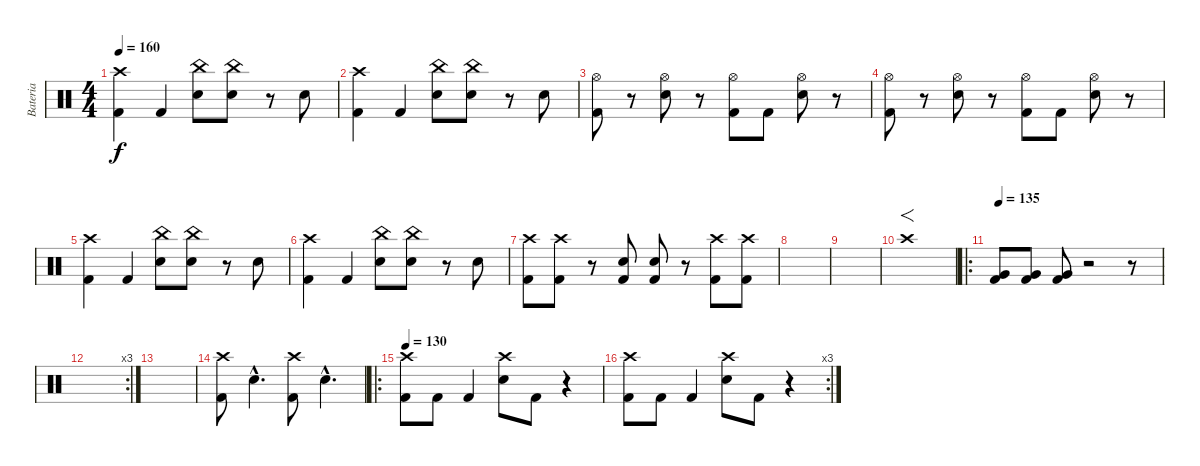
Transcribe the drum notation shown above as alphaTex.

\track ("Bateria" "Bateria") {instrument percussion}
\staff {score}
\articulation defaults
\ts (4 4)
\tempo 160
\clef neutral
\ks c
("Crash high (hit)" "Kick (hit) 2").4{dy f} "Kick (hit) 2".4 ("China (hit)" "Electric Snare (hit)").8 ("China (hit)" "Electric Snare (hit)").8 r.8 "Electric Snare (hit)".8 |
("Crash high (hit)" "Kick (hit) 2").4 "Kick (hit) 2".4 ("China (hit)" "Electric Snare (hit)").8 ("China (hit)" "Electric Snare (hit)").8 r.8 "Electric Snare (hit)".8 |
("Hi-Hat (open)" "Kick (hit) 2").8 r.8 ("Hi-Hat (open)" "Electric Snare (hit)").8 r.8 ("Hi-Hat (open)" "Kick (hit) 2").8 "Kick (hit) 2".8 ("Hi-Hat (open)" "Electric Snare (hit)").8 r.8 |
("Hi-Hat (open)" "Kick (hit) 2").8 r.8 ("Hi-Hat (open)" "Electric Snare (hit)").8 r.8 ("Hi-Hat (open)" "Kick (hit) 2").8 "Kick (hit) 2".8 ("Hi-Hat (open)" "Electric Snare (hit)").8 r.8 |
("Crash high (hit)" "Kick (hit) 2").4 "Kick (hit) 2".4 ("China (hit)" "Electric Snare (hit)").8 ("China (hit)" "Electric Snare (hit)").8 r.8 "Electric Snare (hit)".8 |
("Crash high (hit)" "Kick (hit) 2").4 "Kick (hit) 2".4 ("China (hit)" "Electric Snare (hit)").8 ("China (hit)" "Electric Snare (hit)").8 r.8 "Electric Snare (hit)".8 |
("Crash high (hit)" "Kick (hit) 2").8 ("Crash high (hit)" "Kick (hit) 2").8 r.8 ("Electric Snare (hit)" "Kick (hit) 2").8 ("Electric Snare (hit)" "Kick (hit) 2").8 r.8 ("Crash high (hit)" "Kick (hit) 2").8 ("Crash high (hit)" "Kick (hit) 2").8 |
|
|
"Crash high (hit)".1{f} |
\ro
\tempo 135
("Kick (hit) 2" "Very Low Tom (hit)").8 ("Kick (hit) 2" "Very Low Tom (hit)").8 ("Kick (hit) 2" "Very Low Tom (hit)").8 r.2 r.8 |
\rc 3
|
|
("Crash high (hit)" "Kick (hit) 2").8 "Electric Snare (hit)"{hac}.4{d} ("Crash high (hit)" "Kick (hit) 2").8 "Electric Snare (hit)"{hac}.4{d} |
\ro
\tempo 130
("Crash high (hit)" "Kick (hit) 2").8 "Kick (hit) 2".8 "Kick (hit) 2".4 ("Crash high (hit)" "Electric Snare (hit)").8 "Kick (hit) 2".8 r.4 |
\rc 3
("Crash high (hit)" "Kick (hit) 2").8 "Kick (hit) 2".8 "Kick (hit) 2".4 ("Crash high (hit)" "Electric Snare (hit)").8 "Kick (hit) 2".8 r.4
